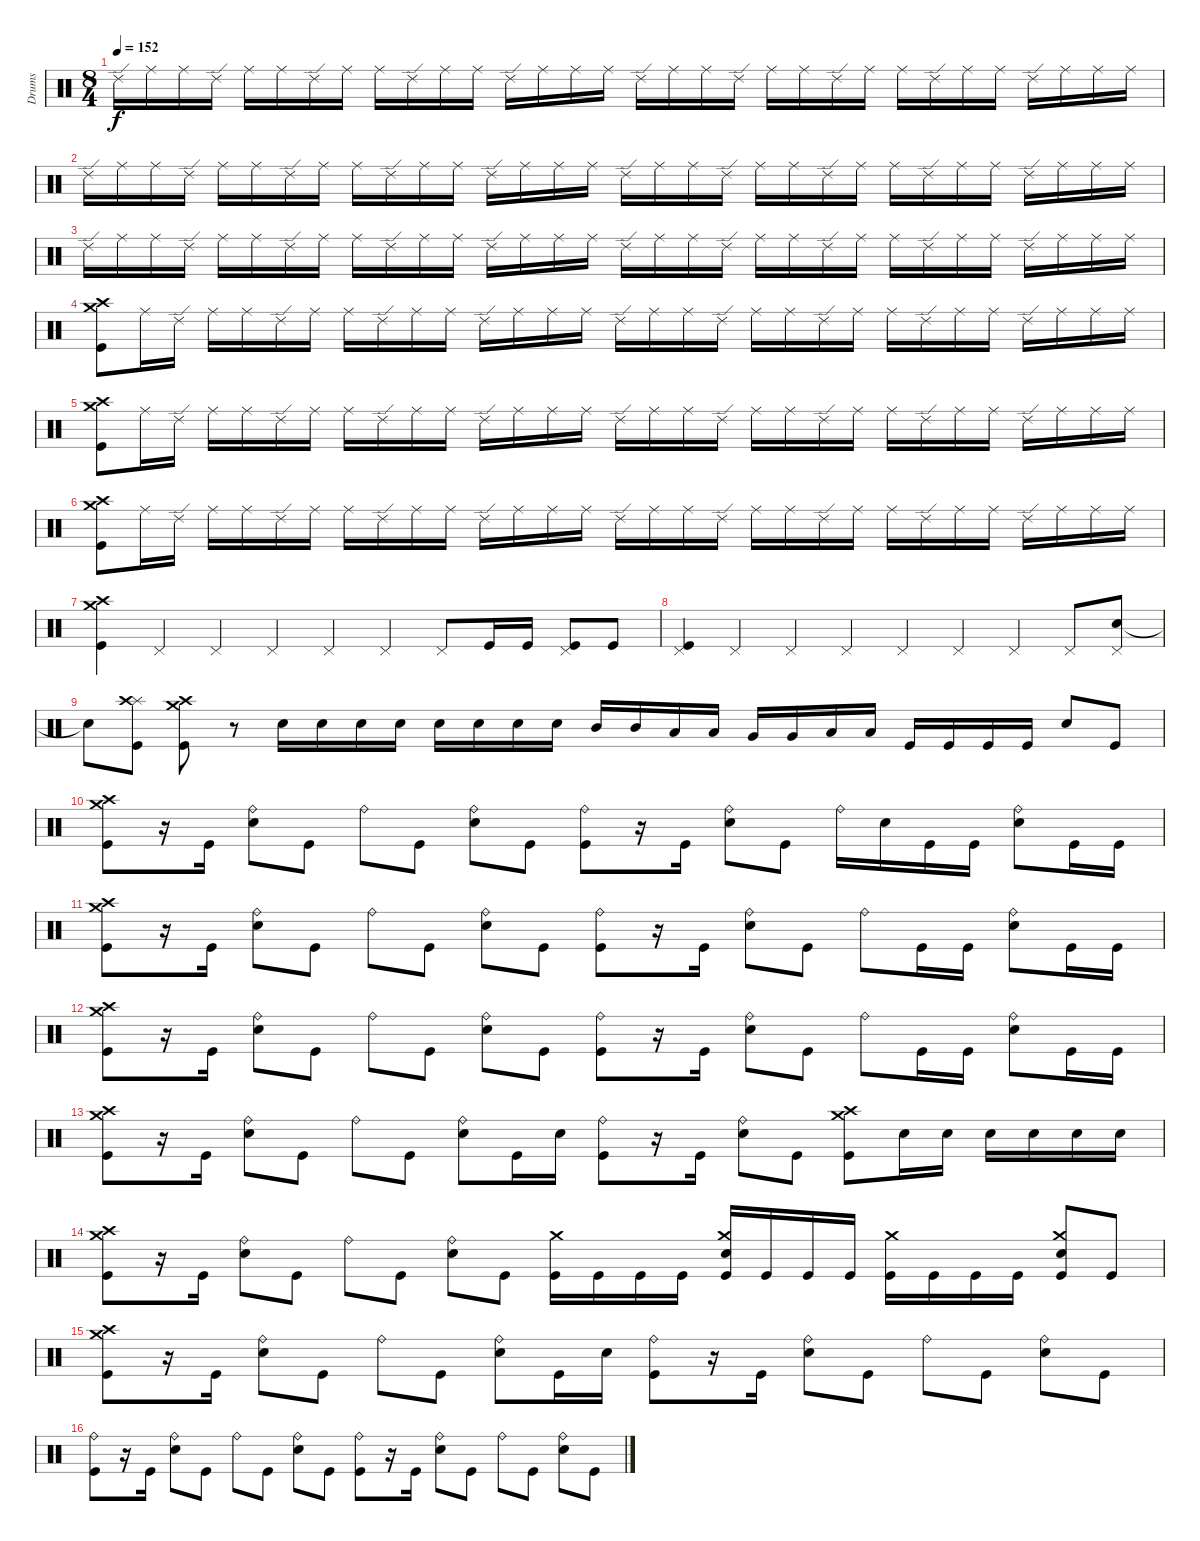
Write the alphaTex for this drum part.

\track ("Drums" "Drums") {instrument percussion}
\staff {score}
\articulation defaults
\ts (8 4)
\tempo 152
\clef neutral
\ks c "Ride (edge) 2".16{dy f} "Ride (middle)".16 "Ride (middle)".16 "Ride (edge) 2".16 "Ride (middle)".16 "Ride (middle)".16 "Ride (edge) 2".16 "Ride (middle)".16 "Ride (middle)".16 "Ride (edge) 2".16 "Ride (middle)".16 "Ride (middle)".16 "Ride (edge) 2".16 "Ride (middle)".16 "Ride (middle)".16 "Ride (middle)".16 "Ride (edge) 2".16 "Ride (middle)".16 "Ride (middle)".16 "Ride (edge) 2".16 "Ride (middle)".16 "Ride (middle)".16 "Ride (edge) 2".16 "Ride (middle)".16 "Ride (middle)".16 "Ride (edge) 2".16 "Ride (middle)".16 "Ride (middle)".16 "Ride (edge) 2".16 "Ride (middle)".16 "Ride (middle)".16 "Ride (middle)".16
|
"Ride (edge) 2".16 "Ride (middle)".16 "Ride (middle)".16 "Ride (edge) 2".16 "Ride (middle)".16 "Ride (middle)".16 "Ride (edge) 2".16 "Ride (middle)".16 "Ride (middle)".16 "Ride (edge) 2".16 "Ride (middle)".16 "Ride (middle)".16 "Ride (edge) 2".16 "Ride (middle)".16 "Ride (middle)".16 "Ride (middle)".16 "Ride (edge) 2".16 "Ride (middle)".16 "Ride (middle)".16 "Ride (edge) 2".16 "Ride (middle)".16 "Ride (middle)".16 "Ride (edge) 2".16 "Ride (middle)".16 "Ride (middle)".16 "Ride (edge) 2".16 "Ride (middle)".16 "Ride (middle)".16 "Ride (edge) 2".16 "Ride (middle)".16 "Ride (middle)".16 "Ride (middle)".16 |
"Ride (edge) 2".16 "Ride (middle)".16 "Ride (middle)".16 "Ride (edge) 2".16 "Ride (middle)".16 "Ride (middle)".16 "Ride (edge) 2".16 "Ride (middle)".16 "Ride (middle)".16 "Ride (edge) 2".16 "Ride (middle)".16 "Ride (middle)".16 "Ride (edge) 2".16 "Ride (middle)".16 "Ride (middle)".16 "Ride (middle)".16 "Ride (edge) 2".16 "Ride (middle)".16 "Ride (middle)".16 "Ride (edge) 2".16 "Ride (middle)".16 "Ride (middle)".16 "Ride (edge) 2".16 "Ride (middle)".16 "Ride (middle)".16 "Ride (edge) 2".16 "Ride (middle)".16 "Ride (middle)".16 "Ride (edge) 2".16 "Ride (middle)".16 "Ride (middle)".16 "Ride (middle)".16 |
("Kick (hit)" "Crash medium (hit)" "Crash high (hit)").8 "Ride (middle)".16 "Ride (edge) 2".16 "Ride (middle)".16 "Ride (middle)".16 "Ride (edge) 2".16 "Ride (middle)".16 "Ride (middle)".16 "Ride (edge) 2".16 "Ride (middle)".16 "Ride (middle)".16 "Ride (edge) 2".16 "Ride (middle)".16 "Ride (middle)".16 "Ride (middle)".16 "Ride (edge) 2".16 "Ride (middle)".16 "Ride (middle)".16 "Ride (edge) 2".16 "Ride (middle)".16 "Ride (middle)".16 "Ride (edge) 2".16 "Ride (middle)".16 "Ride (middle)".16 "Ride (edge) 2".16 "Ride (middle)".16 "Ride (middle)".16 "Ride (edge) 2".16 "Ride (middle)".16 "Ride (middle)".16 "Ride (middle)".16 |
("Kick (hit)" "Crash medium (hit)" "Crash high (hit)").8 "Ride (middle)".16 "Ride (edge) 2".16 "Ride (middle)".16 "Ride (middle)".16 "Ride (edge) 2".16 "Ride (middle)".16 "Ride (middle)".16 "Ride (edge) 2".16 "Ride (middle)".16 "Ride (middle)".16 "Ride (edge) 2".16 "Ride (middle)".16 "Ride (middle)".16 "Ride (middle)".16 "Ride (edge) 2".16 "Ride (middle)".16 "Ride (middle)".16 "Ride (edge) 2".16 "Ride (middle)".16 "Ride (middle)".16 "Ride (edge) 2".16 "Ride (middle)".16 "Ride (middle)".16 "Ride (edge) 2".16 "Ride (middle)".16 "Ride (middle)".16 "Ride (edge) 2".16 "Ride (middle)".16 "Ride (middle)".16 "Ride (middle)".16 |
("Kick (hit)" "Crash medium (hit)" "Crash high (hit)").8 "Ride (middle)".16 "Ride (edge) 2".16 "Ride (middle)".16 "Ride (middle)".16 "Ride (edge) 2".16 "Ride (middle)".16 "Ride (middle)".16 "Ride (edge) 2".16 "Ride (middle)".16 "Ride (middle)".16 "Ride (edge) 2".16 "Ride (middle)".16 "Ride (middle)".16 "Ride (middle)".16 "Ride (edge) 2".16 "Ride (middle)".16 "Ride (middle)".16 "Ride (edge) 2".16 "Ride (middle)".16 "Ride (middle)".16 "Ride (edge) 2".16 "Ride (middle)".16 "Ride (middle)".16 "Ride (edge) 2".16 "Ride (middle)".16 "Ride (middle)".16 "Ride (edge) 2".16 "Ride (middle)".16 "Ride (middle)".16 "Ride (middle)".16 |
("Kick (hit)" "Crash medium (hit)" "Crash high (hit)").4 "Pedal Hi-Hat (hit)".4 "Pedal Hi-Hat (hit)".4 "Pedal Hi-Hat (hit)".4 "Pedal Hi-Hat (hit)".4 "Pedal Hi-Hat (hit)".4 "Pedal Hi-Hat (hit)".8 "Kick (hit)".16 "Kick (hit)".16 ("Kick (hit)" "Pedal Hi-Hat (hit)").8 "Kick (hit)".8 |
("Kick (hit)" "Pedal Hi-Hat (hit)").4 "Pedal Hi-Hat (hit)".4 "Pedal Hi-Hat (hit)".4 "Pedal Hi-Hat (hit)".4 "Pedal Hi-Hat (hit)".4 "Pedal Hi-Hat (hit)".4 "Pedal Hi-Hat (hit)".4 "Pedal Hi-Hat (hit)".8 ("Electric Snare (hit)" "Pedal Hi-Hat (hit)").8 |
"Electric Snare (hit)"{t}.8 ("Kick (hit)" "Splash (hit)" "Crash high (hit)").8 ("Kick (hit)" "Crash medium (hit)" "Crash high (hit)").8 r.8 "Electric Snare (hit)".16 "Electric Snare (hit)".16 "Electric Snare (hit)".16 "Electric Snare (hit)".16 "Electric Snare (hit)".16 "Electric Snare (hit)".16 "Electric Snare (hit)".16 "Electric Snare (hit)".16 "Mid Tom (hit)".16 "Mid Tom (hit)".16 "Low Tom (hit)".16 "Low Tom (hit)".16 "Very Low Tom (hit)".16 "Very Low Tom (hit)".16 "Low Floor Tom (hit)".16 "Low Floor Tom (hit)".16 "Kick (hit)".16 "Kick (hit)".16 "Kick (hit)".16 "Kick (hit)".16 "Electric Snare (hit)".8 "Kick (hit)".8 |
("Kick (hit)" "Crash high (hit)" "Crash medium (hit)").8 r.16 "Kick (hit)".16 ("Electric Snare (hit)" "Ride (bell)").8 "Kick (hit)".8 "Ride (bell)".8 "Kick (hit)".8 ("Electric Snare (hit)" "Ride (bell)").8 "Kick (hit)".8 ("Kick (hit)" "Ride (bell)").8 r.16 "Kick (hit)".16 ("Electric Snare (hit)" "Ride (bell)").8 "Kick (hit)".8 "Ride (bell)".16 "Electric Snare (hit)".16 "Kick (hit)".16 "Kick (hit)".16 ("Electric Snare (hit)" "Ride (bell)").8 "Kick (hit)".16 "Kick (hit)".16 |
("Kick (hit)" "Crash high (hit)" "Crash medium (hit)").8 r.16 "Kick (hit)".16 ("Electric Snare (hit)" "Ride (bell)").8 "Kick (hit)".8 "Ride (bell)".8 "Kick (hit)".8 ("Electric Snare (hit)" "Ride (bell)").8 "Kick (hit)".8 ("Kick (hit)" "Ride (bell)").8 r.16 "Kick (hit)".16 ("Electric Snare (hit)" "Ride (bell)").8 "Kick (hit)".8 "Ride (bell)".8 "Kick (hit)".16 "Kick (hit)".16 ("Electric Snare (hit)" "Ride (bell)").8 "Kick (hit)".16 "Kick (hit)".16 |
("Kick (hit)" "Crash high (hit)" "Crash medium (hit)").8 r.16 "Kick (hit)".16 ("Electric Snare (hit)" "Ride (bell)").8 "Kick (hit)".8 "Ride (bell)".8 "Kick (hit)".8 ("Electric Snare (hit)" "Ride (bell)").8 "Kick (hit)".8 ("Kick (hit)" "Ride (bell)").8 r.16 "Kick (hit)".16 ("Electric Snare (hit)" "Ride (bell)").8 "Kick (hit)".8 "Ride (bell)".8 "Kick (hit)".16 "Kick (hit)".16 ("Electric Snare (hit)" "Ride (bell)").8 "Kick (hit)".16 "Kick (hit)".16 |
("Kick (hit)" "Crash high (hit)" "Crash medium (hit)").8 r.16 "Kick (hit)".16 ("Electric Snare (hit)" "Ride (bell)").8 "Kick (hit)".8 "Ride (bell)".8 "Kick (hit)".8 ("Electric Snare (hit)" "Ride (bell)").8 "Kick (hit)".16 "Electric Snare (hit)".16 ("Kick (hit)" "Ride (bell)").8 r.16 "Kick (hit)".16 ("Electric Snare (hit)" "Ride (bell)").8 "Kick (hit)".8 ("Kick (hit)" "Crash medium (hit)" "Crash high (hit)").8 "Electric Snare (hit)".16 "Electric Snare (hit)".16 "Electric Snare (hit)".16 "Electric Snare (hit)".16 "Electric Snare (hit)".16 "Electric Snare (hit)".16 |
("Kick (hit)" "Crash high (hit)" "Crash medium (hit)").8 r.16 "Kick (hit)".16 ("Electric Snare (hit)" "Ride (bell)").8 "Kick (hit)".8 "Ride (bell)".8 "Kick (hit)".8 ("Electric Snare (hit)" "Ride (bell)").8 "Kick (hit)".8 ("Kick (hit)" "Crash medium (hit)").16 "Kick (hit)".16 "Kick (hit)".16 "Kick (hit)".16 ("Kick (hit)" "Crash medium (hit)" "Electric Snare (hit)").16 "Kick (hit)".16 "Kick (hit)".16 "Kick (hit)".16 ("Kick (hit)" "Crash medium (hit)").16 "Kick (hit)".16 "Kick (hit)".16 "Kick (hit)".16 ("Kick (hit)" "Crash medium (hit)" "Electric Snare (hit)").8 "Kick (hit)".8 |
("Kick (hit)" "Crash high (hit)" "Crash medium (hit)").8 r.16 "Kick (hit)".16 ("Electric Snare (hit)" "Ride (bell)").8 "Kick (hit)".8 "Ride (bell)".8 "Kick (hit)".8 ("Electric Snare (hit)" "Ride (bell)").8 "Kick (hit)".16 "Electric Snare (hit)".16 ("Kick (hit)" "Ride (bell)").8 r.16 "Kick (hit)".16 ("Electric Snare (hit)" "Ride (bell)").8 "Kick (hit)".8 "Ride (bell)".8 "Kick (hit)".8 ("Electric Snare (hit)" "Ride (bell)").8 "Kick (hit)".8 |
("Kick (hit)" "Ride (bell)").8 r.16 "Kick (hit)".16 ("Electric Snare (hit)" "Ride (bell)").8 "Kick (hit)".8 "Ride (bell)".8 "Kick (hit)".8 ("Electric Snare (hit)" "Ride (bell)").8 "Kick (hit)".8 ("Kick (hit)" "Ride (bell)").8 r.16 "Kick (hit)".16 ("Electric Snare (hit)" "Ride (bell)").8 "Kick (hit)".8 "Ride (bell)".8 "Kick (hit)".8 ("Electric Snare (hit)" "Ride (bell)").8 "Kick (hit)".8
